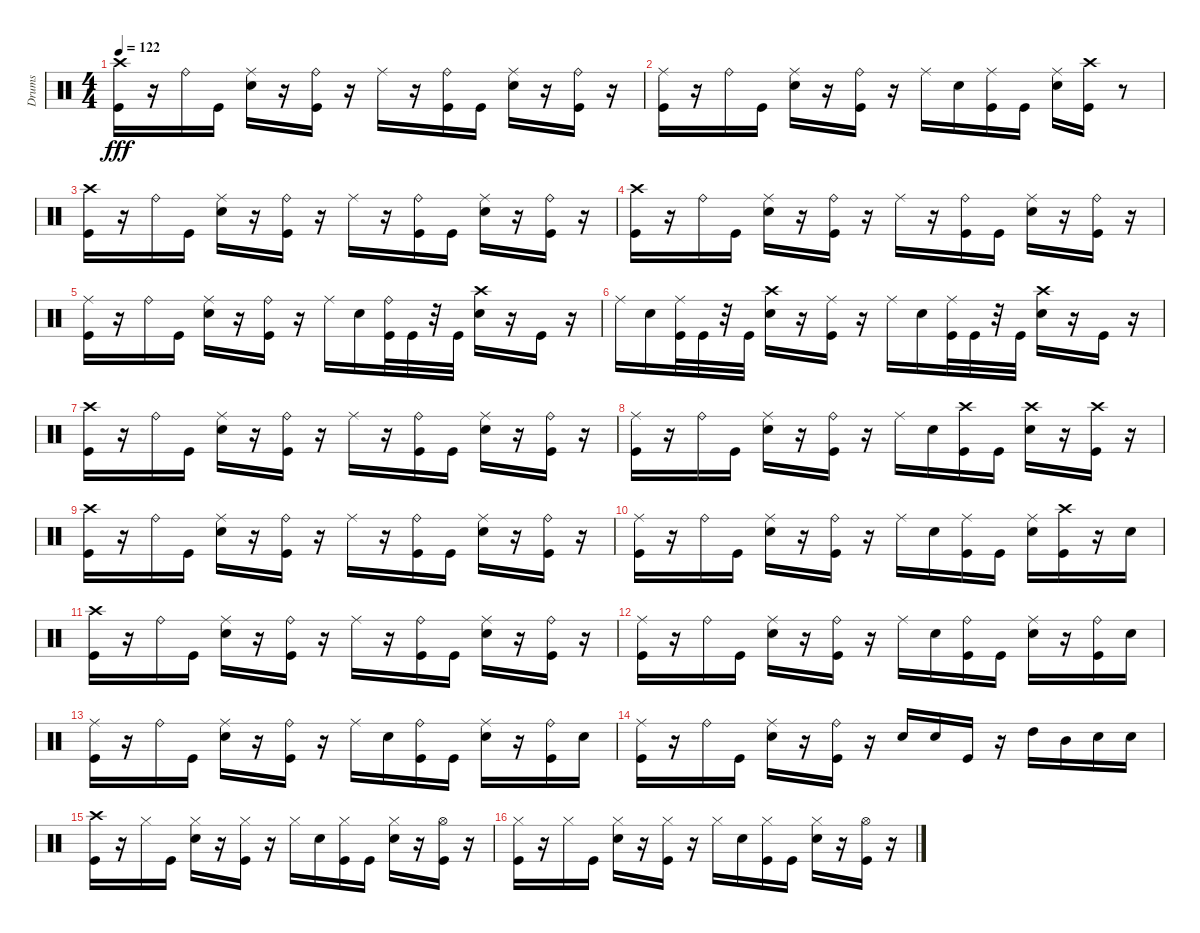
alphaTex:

\track ("Drums" "Drums") {instrument percussion}
\staff {score}
\articulation defaults
\ts (4 4)
\tempo 122
\clef neutral
\ks c
("Crash high (hit)" "Kick (hit)").16{dy fff} r.16 "Ride (bell)".16 "Kick (hit)".16 ("Snare (hit) 2" "Ride (middle)").16 r.16 ("Kick (hit)" "Ride (bell)").16 r.16 "Ride (middle)".16 r.16 ("Kick (hit)" "Ride (bell)").16 "Kick (hit)".16 ("Snare (hit) 2" "Ride (middle)").16 r.16 ("Kick (hit)" "Ride (bell)").16 r.16 |
("Ride (middle)" "Kick (hit)").16 r.16 "Ride (bell)".16 "Kick (hit)".16 ("Ride (middle)" "Snare (hit) 2").16 r.16 ("Ride (bell)" "Kick (hit)").16 r.16 "Ride (middle)".16 "Snare (hit) 2".16 ("Ride (middle)" "Kick (hit)").16 "Kick (hit)".16 ("Ride (middle)" "Snare (hit) 2").16 ("Crash high (hit)" "Kick (hit)").16 r.8 |
("Crash high (hit)" "Kick (hit)").16 r.16 "Ride (bell)".16 "Kick (hit)".16 ("Snare (hit) 2" "Ride (middle)").16 r.16 ("Kick (hit)" "Ride (bell)").16 r.16 "Ride (middle)".16 r.16 ("Kick (hit)" "Ride (bell)").16 "Kick (hit)".16 ("Snare (hit) 2" "Ride (middle)").16 r.16 ("Kick (hit)" "Ride (bell)").16 r.16 |
("Crash high (hit)" "Kick (hit)").16 r.16 "Ride (bell)".16 "Kick (hit)".16 ("Ride (middle)" "Snare (hit) 2").16 r.16 ("Ride (bell)" "Kick (hit)").16 r.16 "Ride (middle)".16 r.16 ("Ride (bell)" "Kick (hit)").16 "Kick (hit)".16 ("Ride (middle)" "Snare (hit) 2").16 r.16 ("Ride (bell)" "Kick (hit)").16 r.16 |
("Kick (hit)" "Ride (middle)").16 r.16 "Ride (bell)".16 "Kick (hit)".16 ("Snare (hit) 2" "Ride (middle)").16 r.16 ("Kick (hit)" "Ride (bell)").16 r.16 "Ride (middle)".16 "Snare (hit) 2".16 ("Kick (hit)" "Ride (bell)").32 "Kick (hit)".32 r.32 "Kick (hit)".32 ("Snare (hit) 2" "Crash high (hit)").16 r.16 "Kick (hit)".16 r.16 |
"Ride (middle)".16 "Snare (hit) 2".16 ("Kick (hit)" "Ride (middle)").32 "Kick (hit)".32 r.32 "Kick (hit)".32 ("Snare (hit) 2" "Crash high (hit)").16 r.16 ("Kick (hit)" "Ride (middle)").16 r.16 "Ride (middle)".16 "Snare (hit) 2".16 ("Kick (hit)" "Ride (middle)").32 "Kick (hit)".32 r.32 "Kick (hit)".32 ("Snare (hit) 2" "Crash high (hit)").16 r.16 "Kick (hit)".16 r.16 |
("Crash high (hit)" "Kick (hit)").16 r.16 "Ride (bell)".16 "Kick (hit)".16 ("Ride (middle)" "Snare (hit) 2").16 r.16 ("Ride (bell)" "Kick (hit)").16 r.16 "Ride (middle)".16 r.16 ("Ride (bell)" "Kick (hit)").16 "Kick (hit)".16 ("Ride (middle)" "Snare (hit) 2").16 r.16 ("Ride (bell)" "Kick (hit)").16 r.16 |
("Kick (hit)" "Ride (middle)").16 r.16 "Ride (bell)".16 "Kick (hit)".16 ("Snare (hit) 2" "Ride (middle)").16 r.16 ("Kick (hit)" "Ride (bell)").16 r.16 "Ride (middle)".16 "Snare (hit) 2".16 ("Kick (hit)" "Crash high (hit)").16 "Kick (hit)".16 ("Snare (hit) 2" "Crash high (hit)").16 r.16 ("Kick (hit)" "Crash high (hit)").16 r.16 |
("Crash high (hit)" "Kick (hit)").16 r.16 "Ride (bell)".16 "Kick (hit)".16 ("Ride (middle)" "Snare (hit) 2").16 r.16 ("Ride (bell)" "Kick (hit)").16 r.16 "Ride (middle)".16 r.16 ("Ride (bell)" "Kick (hit)").16 "Kick (hit)".16 ("Ride (middle)" "Snare (hit) 2").16 r.16 ("Ride (bell)" "Kick (hit)").16 r.16 |
("Kick (hit)" "Ride (middle)").16 r.16 "Ride (bell)".16 "Kick (hit)".16 ("Snare (hit) 2" "Ride (middle)").16 r.16 ("Kick (hit)" "Ride (bell)").16 r.16 "Ride (middle)".16 "Snare (hit) 2".16 ("Kick (hit)" "Ride (middle)").16 "Kick (hit)".16 ("Snare (hit) 2" "Ride (middle)").16 ("Kick (hit)" "Crash high (hit)").16 r.16 "Snare (hit) 2".16 |
("Crash high (hit)" "Kick (hit)").16 r.16 "Ride (bell)".16 "Kick (hit)".16 ("Ride (middle)" "Snare (hit) 2").16 r.16 ("Ride (bell)" "Kick (hit)").16 r.16 "Ride (middle)".16 r.16 ("Ride (bell)" "Kick (hit)").16 "Kick (hit)".16 ("Ride (middle)" "Snare (hit) 2").16 r.16 ("Ride (bell)" "Kick (hit)").16 r.16 |
("Kick (hit)" "Ride (middle)").16 r.16 "Ride (bell)".16 "Kick (hit)".16 ("Snare (hit) 2" "Ride (middle)").16 r.16 ("Kick (hit)" "Ride (bell)").16 r.16 "Ride (middle)".16 "Snare (hit) 2".16 ("Kick (hit)" "Ride (bell)").16 "Kick (hit)".16 ("Snare (hit) 2" "Ride (middle)").16 r.16 ("Kick (hit)" "Ride (bell)").16 "Snare (hit) 2".16 |
("Kick (hit)" "Ride (middle)").16 r.16 "Ride (bell)".16 "Kick (hit)".16 ("Snare (hit) 2" "Ride (middle)").16 r.16 ("Kick (hit)" "Ride (bell)").16 r.16 "Ride (middle)".16 "Snare (hit) 2".16 ("Kick (hit)" "Ride (bell)").16 "Kick (hit)".16 ("Snare (hit) 2" "Ride (middle)").16 r.16 ("Kick (hit)" "Ride (bell)").16 "Snare (hit) 2".16 |
("Ride (middle)" "Kick (hit)").16 r.16 "Ride (bell)".16 "Kick (hit)".16 ("Ride (middle)" "Snare (hit) 2").16 r.16 ("Ride (bell)" "Kick (hit)").16 r.16 "Snare (hit) 2".16 "Snare (hit) 2".16 "Kick (hit)".16 r.16 "High Tom (hit)".16 "Mid Tom (hit)".16 "Snare (hit) 2".16 "Snare (hit) 2".16 |
("Crash high (hit)" "Kick (hit)").16 r.16 "Hi-Hat (closed)".16 "Kick (hit)".16 ("Snare (hit) 2" "Hi-Hat (closed)").16 r.16 ("Kick (hit)" "Hi-Hat (closed)").16 r.16 "Hi-Hat (closed)".16 "Snare (hit) 2".16 ("Kick (hit)" "Hi-Hat (closed)").16 "Kick (hit)".16 ("Snare (hit) 2" "Hi-Hat (closed)").16 r.16 ("Kick (hit)" "Hi-Hat (open)").16 r.16 |
("Kick (hit)" "Hi-Hat (closed)").16 r.16 "Hi-Hat (closed)".16 "Kick (hit)".16 ("Snare (hit) 2" "Hi-Hat (closed)").16 r.16 ("Kick (hit)" "Hi-Hat (closed)").16 r.16 "Hi-Hat (closed)".16 "Snare (hit) 2".16 ("Kick (hit)" "Hi-Hat (closed)").16 "Kick (hit)".16 ("Snare (hit) 2" "Hi-Hat (closed)").16 r.16 ("Kick (hit)" "Hi-Hat (open)").16 r.16
